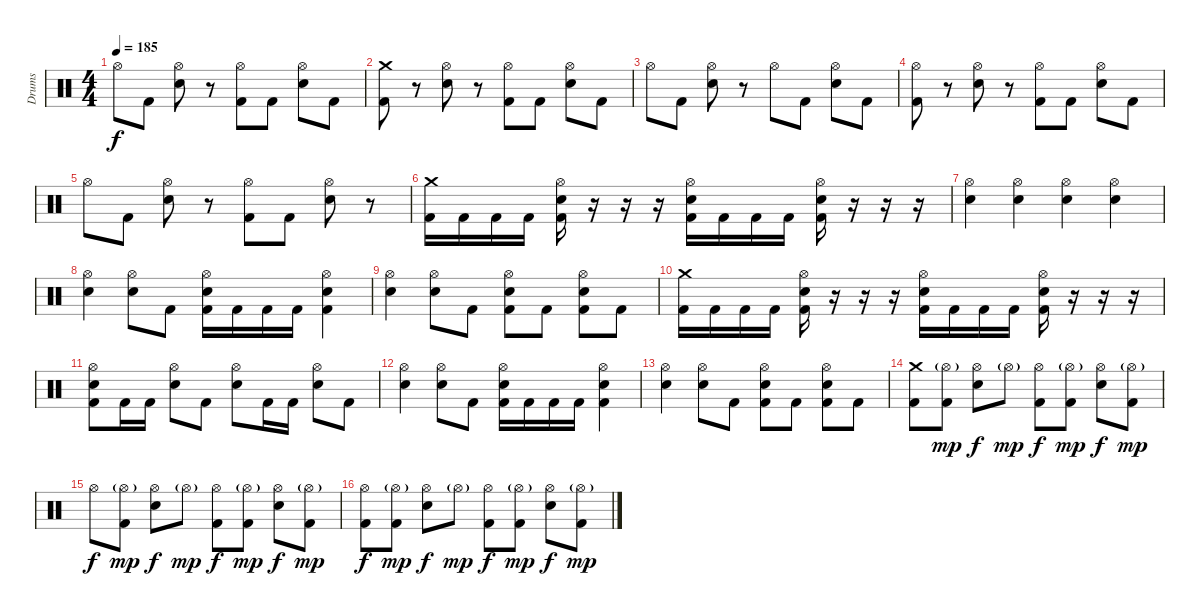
\track ("Drums" "Drums") {instrument percussion}
\staff {score}
\articulation defaults
\ts (4 4)
\tempo 185
\clef neutral
\ks c "Hi-Hat (open)".8{dy f} "Kick (hit) 2".8
("Hi-Hat (open)" "Electric Snare (hit)").8 r.8 ("Hi-Hat (open)" "Kick (hit) 2").8 "Kick (hit) 2".8 ("Hi-Hat (open)" "Electric Snare (hit)").8 "Kick (hit) 2".8 |
("Crash medium (hit)" "Kick (hit) 2").8 r.8 ("Hi-Hat (open)" "Electric Snare (hit)").8 r.8 ("Hi-Hat (open)" "Kick (hit) 2").8 "Kick (hit) 2".8 ("Hi-Hat (open)" "Electric Snare (hit)").8 "Kick (hit) 2".8 |
"Hi-Hat (open)".8 "Kick (hit) 2".8 ("Hi-Hat (open)" "Electric Snare (hit)").8 r.8 "Hi-Hat (open)".8 "Kick (hit) 2".8 ("Hi-Hat (open)" "Electric Snare (hit)").8 "Kick (hit) 2".8 |
("Hi-Hat (open)" "Kick (hit) 2").8 r.8 ("Hi-Hat (open)" "Electric Snare (hit)").8 r.8 ("Hi-Hat (open)" "Kick (hit) 2").8 "Kick (hit) 2".8 ("Hi-Hat (open)" "Electric Snare (hit)").8 "Kick (hit) 2".8 |
"Hi-Hat (open)".8 "Kick (hit) 2".8 ("Hi-Hat (open)" "Electric Snare (hit)").8 r.8 ("Hi-Hat (open)" "Kick (hit) 2").8 "Kick (hit) 2".8 ("Hi-Hat (open)" "Electric Snare (hit)").8 r.8 |
("Crash medium (hit)" "Kick (hit) 2").16 "Kick (hit) 2".16 "Kick (hit) 2".16 "Kick (hit) 2".16 ("Hi-Hat (open)" "Electric Snare (hit)" "Kick (hit) 2").16 r.16 r.16 r.16 ("Hi-Hat (open)" "Electric Snare (hit)" "Kick (hit) 2").16 "Kick (hit) 2".16 "Kick (hit) 2".16 "Kick (hit) 2".16 ("Hi-Hat (open)" "Electric Snare (hit)" "Kick (hit) 2").16 r.16 r.16 r.16 |
("Hi-Hat (open)" "Electric Snare (hit)").4 ("Hi-Hat (open)" "Electric Snare (hit)").4 ("Hi-Hat (open)" "Electric Snare (hit)").4 ("Hi-Hat (open)" "Electric Snare (hit)").4 |
("Hi-Hat (open)" "Electric Snare (hit)").4 ("Hi-Hat (open)" "Electric Snare (hit)").8 "Kick (hit) 2".8 ("Hi-Hat (open)" "Electric Snare (hit)" "Kick (hit) 2").16 "Kick (hit) 2".16 "Kick (hit) 2".16 "Kick (hit) 2".16 ("Hi-Hat (open)" "Electric Snare (hit)" "Kick (hit) 2").4 |
("Hi-Hat (open)" "Electric Snare (hit)").4 ("Hi-Hat (open)" "Electric Snare (hit)").8 "Kick (hit) 2".8 ("Hi-Hat (open)" "Electric Snare (hit)" "Kick (hit) 2").8 "Kick (hit) 2".8 ("Hi-Hat (open)" "Electric Snare (hit)" "Kick (hit) 2").8 "Kick (hit) 2".8 |
("Crash medium (hit)" "Kick (hit) 2").16 "Kick (hit) 2".16 "Kick (hit) 2".16 "Kick (hit) 2".16 ("Hi-Hat (open)" "Electric Snare (hit)" "Kick (hit) 2").16 r.16 r.16 r.16 ("Hi-Hat (open)" "Electric Snare (hit)" "Kick (hit) 2").16 "Kick (hit) 2".16 "Kick (hit) 2".16 "Kick (hit) 2".16 ("Hi-Hat (open)" "Electric Snare (hit)" "Kick (hit) 2").16 r.16 r.16 r.16 |
("Hi-Hat (open)" "Electric Snare (hit)" "Kick (hit) 2").8 "Kick (hit) 2".16 "Kick (hit) 2".16 ("Hi-Hat (open)" "Electric Snare (hit)").8 "Kick (hit) 2".8 ("Hi-Hat (open)" "Electric Snare (hit)").8 "Kick (hit) 2".16 "Kick (hit) 2".16 ("Hi-Hat (open)" "Electric Snare (hit)").8 "Kick (hit) 2".8 |
("Hi-Hat (open)" "Electric Snare (hit)").4 ("Hi-Hat (open)" "Electric Snare (hit)").8 "Kick (hit) 2".8 ("Hi-Hat (open)" "Electric Snare (hit)" "Kick (hit) 2").16 "Kick (hit) 2".16 "Kick (hit) 2".16 "Kick (hit) 2".16 ("Hi-Hat (open)" "Electric Snare (hit)" "Kick (hit) 2").4 |
("Hi-Hat (open)" "Electric Snare (hit)").4 ("Hi-Hat (open)" "Electric Snare (hit)").8 "Kick (hit) 2".8 ("Hi-Hat (open)" "Electric Snare (hit)" "Kick (hit) 2").8 "Kick (hit) 2".8 ("Hi-Hat (open)" "Electric Snare (hit)" "Kick (hit) 2").8 "Kick (hit) 2".8 |
("Crash medium (hit)" "Kick (hit) 2").8 ("Hi-Hat (open)"{g} "Kick (hit) 2").8{dy mp} ("Hi-Hat (open)" "Electric Snare (hit)").8{dy f} "Hi-Hat (open)"{g}.8{dy mp} ("Hi-Hat (open)" "Kick (hit) 2").8{dy f} ("Hi-Hat (open)"{g} "Kick (hit) 2").8{dy mp} ("Hi-Hat (open)" "Electric Snare (hit)").8{dy f} ("Hi-Hat (open)"{g} "Kick (hit) 2").8{dy mp} |
"Hi-Hat (open)".8{dy f} ("Hi-Hat (open)"{g} "Kick (hit) 2").8{dy mp} ("Hi-Hat (open)" "Electric Snare (hit)").8{dy f} "Hi-Hat (open)"{g}.8{dy mp} ("Hi-Hat (open)" "Kick (hit) 2").8{dy f} ("Hi-Hat (open)"{g} "Kick (hit) 2").8{dy mp} ("Hi-Hat (open)" "Electric Snare (hit)").8{dy f} ("Hi-Hat (open)"{g} "Kick (hit) 2").8{dy mp} |
("Hi-Hat (open)" "Kick (hit) 2").8{dy f} ("Hi-Hat (open)"{g} "Kick (hit) 2").8{dy mp} ("Hi-Hat (open)" "Electric Snare (hit)").8{dy f} "Hi-Hat (open)"{g}.8{dy mp} ("Hi-Hat (open)" "Kick (hit) 2").8{dy f} ("Hi-Hat (open)"{g} "Kick (hit) 2").8{dy mp} ("Hi-Hat (open)" "Electric Snare (hit)").8{dy f} ("Hi-Hat (open)"{g} "Kick (hit) 2").8{dy mp}
